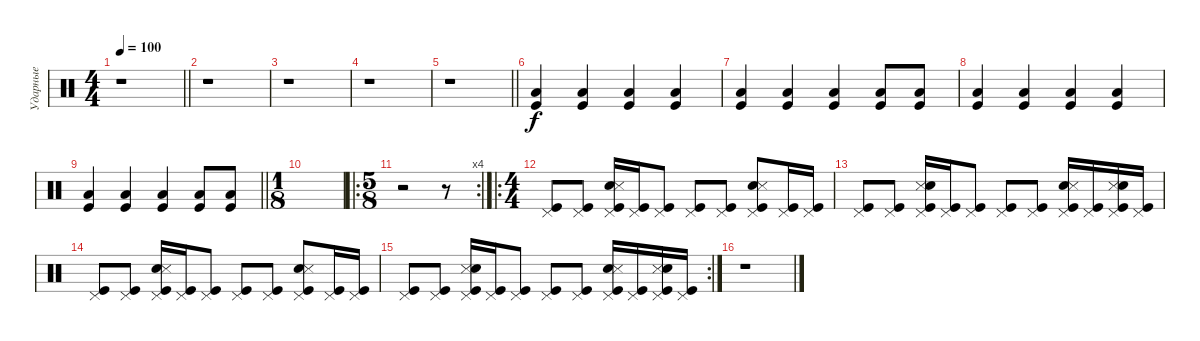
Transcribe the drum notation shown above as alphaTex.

\track ("Ударные" "Ударные") {instrument percussion}
\staff {score}
\articulation defaults
\ts (4 4)
\tempo 100
\clef neutral
\barLineRight lightlight
\ks c
r.1{dy mp} |
r.1 |
r.1 |
r.1 |
\barLineRight lightlight
r.1 |
("Kick (hit)" "Low Floor Tom (hit)").4{dy f} ("Kick (hit)" "Low Floor Tom (hit)").4 ("Kick (hit)" "Low Floor Tom (hit)").4 ("Kick (hit)" "Low Floor Tom (hit)").4 |
("Kick (hit)" "Low Floor Tom (hit)").4 ("Kick (hit)" "Low Floor Tom (hit)").4 ("Kick (hit)" "Low Floor Tom (hit)").4 ("Kick (hit)" "Low Floor Tom (hit)").8 ("Kick (hit)" "Low Floor Tom (hit)").8 |
("Kick (hit)" "Low Floor Tom (hit)").4 ("Kick (hit)" "Low Floor Tom (hit)").4 ("Kick (hit)" "Low Floor Tom (hit)").4 ("Kick (hit)" "Low Floor Tom (hit)").4 |
\barLineRight lightlight
("Kick (hit)" "Low Floor Tom (hit)").4 ("Kick (hit)" "Low Floor Tom (hit)").4 ("Kick (hit)" "Low Floor Tom (hit)").4 ("Kick (hit)" "Low Floor Tom (hit)").8 ("Kick (hit)" "Low Floor Tom (hit)").8 |
\ts (1 8)
|
\ro
\rc 4
\ts (5 8)
r.2 r.8 |
\ro
\ts (4 4)
("Kick (hit)" "Pedal Hi-Hat (hit)").8 ("Kick (hit)" "Pedal Hi-Hat (hit)").8 ("Kick (hit)" "Pedal Hi-Hat (hit)" "Snare (hit) 2" "Snare (side stick) 3").16 ("Kick (hit)" "Pedal Hi-Hat (hit)").16 ("Kick (hit)" "Pedal Hi-Hat (hit)").8 ("Kick (hit)" "Pedal Hi-Hat (hit)").8 ("Kick (hit)" "Pedal Hi-Hat (hit)").8 ("Kick (hit)" "Pedal Hi-Hat (hit)" "Snare (hit) 2" "Snare (side stick) 3").8 ("Kick (hit)" "Pedal Hi-Hat (hit)").16 ("Kick (hit)" "Pedal Hi-Hat (hit)").16 |
("Kick (hit)" "Pedal Hi-Hat (hit)").8 ("Kick (hit)" "Pedal Hi-Hat (hit)").8 ("Kick (hit)" "Pedal Hi-Hat (hit)" "Snare (side stick) 3" "Snare (hit) 2").16 ("Kick (hit)" "Pedal Hi-Hat (hit)").16 ("Kick (hit)" "Pedal Hi-Hat (hit)").8 ("Kick (hit)" "Pedal Hi-Hat (hit)").8 ("Kick (hit)" "Pedal Hi-Hat (hit)").8 ("Kick (hit)" "Pedal Hi-Hat (hit)" "Snare (hit) 2" "Snare (side stick) 3").16 ("Kick (hit)" "Pedal Hi-Hat (hit)").16 ("Kick (hit)" "Pedal Hi-Hat (hit)" "Snare (side stick) 3" "Snare (hit) 2").16 ("Kick (hit)" "Pedal Hi-Hat (hit)").16 |
("Kick (hit)" "Pedal Hi-Hat (hit)").8 ("Kick (hit)" "Pedal Hi-Hat (hit)").8 ("Kick (hit)" "Pedal Hi-Hat (hit)" "Snare (hit) 2" "Snare (side stick) 3").16 ("Kick (hit)" "Pedal Hi-Hat (hit)").16 ("Kick (hit)" "Pedal Hi-Hat (hit)").8 ("Kick (hit)" "Pedal Hi-Hat (hit)").8 ("Kick (hit)" "Pedal Hi-Hat (hit)").8 ("Kick (hit)" "Pedal Hi-Hat (hit)" "Snare (hit) 2" "Snare (side stick) 3").8 ("Kick (hit)" "Pedal Hi-Hat (hit)").16 ("Kick (hit)" "Pedal Hi-Hat (hit)").16 |
\rc 2
("Kick (hit)" "Pedal Hi-Hat (hit)").8 ("Kick (hit)" "Pedal Hi-Hat (hit)").8 ("Kick (hit)" "Pedal Hi-Hat (hit)" "Snare (side stick) 3" "Snare (hit) 2").16 ("Kick (hit)" "Pedal Hi-Hat (hit)").16 ("Kick (hit)" "Pedal Hi-Hat (hit)").8 ("Kick (hit)" "Pedal Hi-Hat (hit)").8 ("Kick (hit)" "Pedal Hi-Hat (hit)").8 ("Kick (hit)" "Pedal Hi-Hat (hit)" "Snare (hit) 2" "Snare (side stick) 3").16 ("Kick (hit)" "Pedal Hi-Hat (hit)").16 ("Kick (hit)" "Pedal Hi-Hat (hit)" "Snare (side stick) 3" "Snare (hit) 2").16 ("Kick (hit)" "Pedal Hi-Hat (hit)").16 |
r.1
